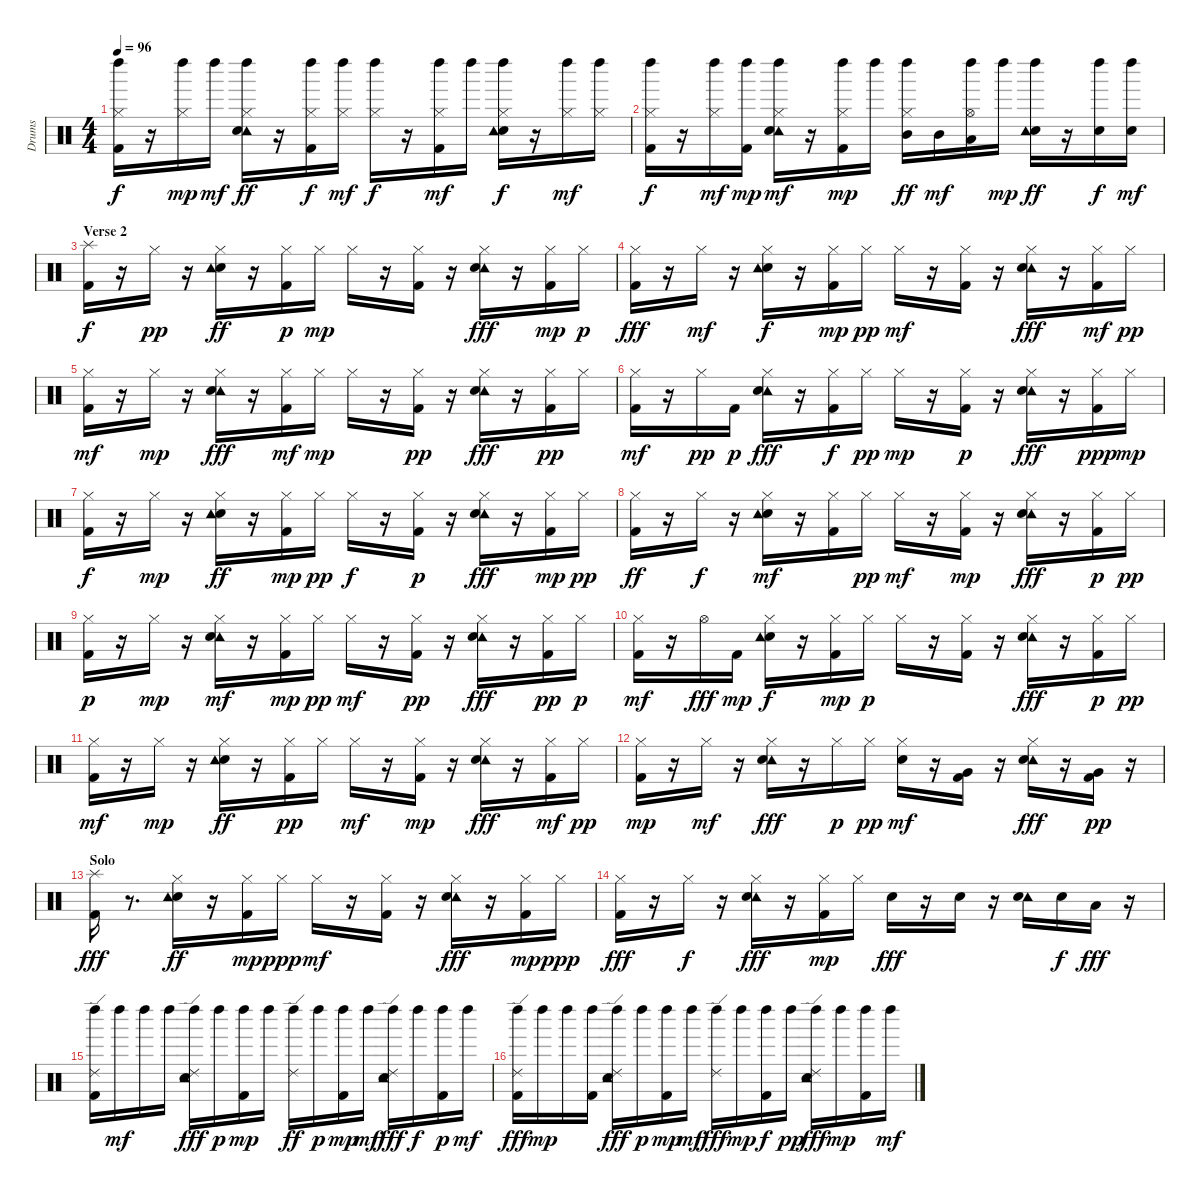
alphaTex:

\track ("Drums" "Drums") {instrument percussion}
\staff {score}
\articulation defaults
\ts (4 4)
\tempo 96
\clef neutral
\ks c
("Left Maraca (hit)" "Hi-Hat (closed)" "Kick (hit) 2").16{dy f} r.16 ("Left Maraca (hit)" "Hi-Hat (closed)").16{dy mp} "Left Maraca (hit)".16{dy mf} ("Left Maraca (hit)" "Hi-Hat (closed)" "Tambourine (hit)" "Snare (hit) 2").16{dy ff} r.16 ("Left Maraca (hit)" "Hi-Hat (closed)" "Kick (hit) 2").16{dy f} ("Left Maraca (hit)" "Hi-Hat (closed)").16{dy mf} ("Left Maraca (hit)" "Hi-Hat (closed)").16{dy f} r.16 ("Left Maraca (hit)" "Kick (hit) 2" "Hi-Hat (closed)").16{dy mf} "Left Maraca (hit)".16 ("Left Maraca (hit)" "Hi-Hat (closed)" "Snare (hit) 2" "Tambourine (hit)").16{dy f} r.16 ("Left Maraca (hit)" "Hi-Hat (closed)").16{dy mf} ("Left Maraca (hit)" "Hi-Hat (closed)").16 |
("Left Maraca (hit)" "Hi-Hat (closed)" "Kick (hit) 2").16{dy f} r.16 ("Left Maraca (hit)" "Hi-Hat (closed)").16{dy mf} ("Kick (hit) 2" "Left Maraca (hit)").16{dy mp} ("Hi-Hat (closed)" "Tambourine (hit)" "Snare (hit) 2" "Left Maraca (hit)").16{dy mf} r.16 ("Left Maraca (hit)" "Hi-Hat (closed)" "Kick (hit) 2").16{dy mp} "Left Maraca (hit)".16 ("Left Maraca (hit)" "Hi-Hat (closed)" "Mid Tom (hit)").16{dy ff} "Mid Tom (hit)".16{dy mf} ("Left Maraca (hit)" "Low Tom (hit)" "Hi-Hat (open)").16 "Left Maraca (hit)".16{dy mp} ("Left Maraca (hit)" "Snare (hit) 2" "Tambourine (hit)").16{dy ff} r.16 ("Left Maraca (hit)" "Snare (hit) 2").16{dy f} ("Left Maraca (hit)" "Snare (hit) 2").16{dy mf} |
\section ("" "Verse 2")
("Kick (hit) 2" "Splash (hit)").16{dy f} r.16 "Hi-Hat (closed)".16{dy pp} r.16 ("Hi-Hat (closed)" "Snare (hit) 2" "Tambourine (hit)").16{dy ff} r.16 ("Hi-Hat (closed)" "Kick (hit) 2").16{dy p} "Hi-Hat (closed)".16{dy mp} "Hi-Hat (closed)".16 r.16 ("Kick (hit) 2" "Hi-Hat (closed)").16 r.16 ("Tambourine (hit)" "Snare (hit) 2" "Hi-Hat (closed)").16{dy fff} r.16 ("Kick (hit) 2" "Hi-Hat (closed)").16{dy mp} "Hi-Hat (closed)".16{dy p} |
("Kick (hit) 2" "Hi-Hat (closed)").16{dy fff} r.16 "Hi-Hat (closed)".16{dy mf} r.16 ("Snare (hit) 2" "Tambourine (hit)" "Hi-Hat (closed)").16{dy f} r.16 ("Kick (hit) 2" "Hi-Hat (closed)").16{dy mp} "Hi-Hat (closed)".16{dy pp} "Hi-Hat (closed)".16{dy mf} r.16 ("Hi-Hat (closed)" "Kick (hit) 2").16 r.16 ("Tambourine (hit)" "Snare (hit) 2" "Hi-Hat (closed)").16{dy fff} r.16 ("Hi-Hat (closed)" "Kick (hit) 2").16{dy mf} "Hi-Hat (closed)".16{dy pp} |
("Hi-Hat (closed)" "Kick (hit) 2").16{dy mf} r.16 "Hi-Hat (closed)".16{dy mp} r.16 ("Tambourine (hit)" "Snare (hit) 2" "Hi-Hat (closed)").16{dy fff} r.16 ("Kick (hit) 2" "Hi-Hat (closed)").16{dy mf} "Hi-Hat (closed)".16{dy mp} "Hi-Hat (closed)".16 r.16 ("Kick (hit) 2" "Hi-Hat (closed)").16{dy pp} r.16 ("Tambourine (hit)" "Snare (hit) 2" "Hi-Hat (closed)").16{dy fff} r.16 ("Hi-Hat (closed)" "Kick (hit) 2").16{dy pp} "Hi-Hat (closed)".16 |
("Hi-Hat (closed)" "Kick (hit) 2").16{dy mf} r.16 "Hi-Hat (closed)".16{dy pp} "Kick (hit) 2".16{dy p} ("Tambourine (hit)" "Snare (hit) 2" "Hi-Hat (closed)").16{dy fff} r.16 ("Kick (hit) 2" "Hi-Hat (closed)").16{dy f} "Hi-Hat (closed)".16{dy pp} "Hi-Hat (closed)".16{dy mp} r.16 ("Kick (hit) 2" "Hi-Hat (closed)").16{dy p} r.16 ("Tambourine (hit)" "Snare (hit) 2" "Hi-Hat (closed)").16{dy fff} r.16 ("Kick (hit) 2" "Hi-Hat (closed)").16{dy ppp} "Hi-Hat (closed)".16{dy mp} |
("Hi-Hat (closed)" "Kick (hit) 2").16{dy f} r.16 "Hi-Hat (closed)".16{dy mp} r.16 ("Snare (hit) 2" "Tambourine (hit)" "Hi-Hat (closed)").16{dy ff} r.16 ("Kick (hit) 2" "Hi-Hat (closed)").16{dy mp} "Hi-Hat (closed)".16{dy pp} "Hi-Hat (closed)".16{dy f} r.16 ("Kick (hit) 2" "Hi-Hat (closed)").16{dy p} r.16 ("Tambourine (hit)" "Snare (hit) 2" "Hi-Hat (closed)").16{dy fff} r.16 ("Hi-Hat (closed)" "Kick (hit) 2").16{dy mp} "Hi-Hat (closed)".16{dy pp} |
("Hi-Hat (closed)" "Kick (hit) 2").16{dy ff} r.16 "Hi-Hat (closed)".16{dy f} r.16 ("Hi-Hat (closed)" "Snare (hit) 2" "Tambourine (hit)").16{dy mf} r.16 ("Hi-Hat (closed)" "Kick (hit) 2").16 "Hi-Hat (closed)".16{dy pp} "Hi-Hat (closed)".16{dy mf} r.16 ("Kick (hit) 2" "Hi-Hat (closed)").16{dy mp} r.16 ("Tambourine (hit)" "Snare (hit) 2" "Hi-Hat (closed)").16{dy fff} r.16 ("Hi-Hat (closed)" "Kick (hit) 2").16{dy p} "Hi-Hat (closed)".16{dy pp} |
("Hi-Hat (closed)" "Kick (hit) 2").16{dy p} r.16 "Hi-Hat (closed)".16{dy mp} r.16 ("Hi-Hat (closed)" "Tambourine (hit)" "Snare (hit) 2").16{dy mf} r.16 ("Hi-Hat (closed)" "Kick (hit) 2").16{dy mp} "Hi-Hat (closed)".16{dy pp} "Hi-Hat (closed)".16{dy mf} r.16 ("Hi-Hat (closed)" "Kick (hit) 2").16{dy pp} r.16 ("Tambourine (hit)" "Snare (hit) 2" "Hi-Hat (closed)").16{dy fff} r.16 ("Hi-Hat (closed)" "Kick (hit) 2").16{dy pp} "Hi-Hat (closed)".16{dy p} |
("Kick (hit) 2" "Hi-Hat (closed)").16{dy mf} r.16 "Hi-Hat (open)".16{dy fff} "Kick (hit) 2".16{dy mp} ("Snare (hit) 2" "Tambourine (hit)" "Hi-Hat (closed)").16{dy f} r.16 ("Hi-Hat (closed)" "Kick (hit) 2").16{dy mp} "Hi-Hat (closed)".16{dy p} "Hi-Hat (closed)".16 r.16 ("Kick (hit) 2" "Hi-Hat (closed)").16 r.16 ("Tambourine (hit)" "Snare (hit) 2" "Hi-Hat (closed)").16{dy fff} r.16 ("Kick (hit) 2" "Hi-Hat (closed)").16{dy p} "Hi-Hat (closed)".16{dy pp} |
("Hi-Hat (closed)" "Kick (hit) 2").16{dy mf} r.16 "Hi-Hat (closed)".16{dy mp} r.16 ("Hi-Hat (closed)" "Snare (hit) 2" "Tambourine (hit)").16{dy ff} r.16 ("Hi-Hat (closed)" "Kick (hit) 2").16{dy pp} "Hi-Hat (closed)".16 "Hi-Hat (closed)".16{dy mf} r.16 ("Hi-Hat (closed)" "Kick (hit) 2").16{dy mp} r.16 ("Tambourine (hit)" "Snare (hit) 2" "Hi-Hat (closed)").16{dy fff} r.16 ("Hi-Hat (closed)" "Kick (hit) 2").16{dy mf} "Hi-Hat (closed)".16{dy pp} |
("Hi-Hat (closed)" "Kick (hit) 2").16{dy mp} r.16 "Hi-Hat (closed)".16{dy mf} r.16 ("Tambourine (hit)" "Snare (hit) 2" "Hi-Hat (closed)").16{dy fff} r.16 "Hi-Hat (closed)".16{dy p} "Hi-Hat (closed)".16{dy pp} ("Hi-Hat (closed)" "Snare (hit) 2").16{dy mf} r.16 ("Very Low Tom (hit)" "Kick (hit) 2").16 r.16 ("Tambourine (hit)" "Snare (hit) 2" "Hi-Hat (closed)").16{dy fff} r.16 ("Kick (hit) 2" "Very Low Tom (hit)").16{dy pp} r.16 |
\section ("" "Solo")
("Kick (hit) 2" "Splash (hit)").16{dy fff} r.8{d} ("Hi-Hat (closed)" "Snare (hit) 2" "Tambourine (hit)").16{dy ff} r.16 ("Kick (hit) 2" "Hi-Hat (closed)").16{dy mp} "Hi-Hat (closed)".16{dy ppp} "Hi-Hat (closed)".16{dy mf} r.16 ("Hi-Hat (closed)" "Kick (hit) 2").16 r.16 ("Tambourine (hit)" "Snare (hit) 2" "Hi-Hat (closed)").16{dy fff} r.16 ("Hi-Hat (closed)" "Kick (hit) 2").16{dy mp} "Hi-Hat (closed)".16{dy ppp} |
("Kick (hit) 2" "Hi-Hat (closed)").16{dy fff} r.16 "Hi-Hat (closed)".16{dy f} r.16 ("Tambourine (hit)" "Snare (hit) 2" "Hi-Hat (closed)").16{dy fff} r.16 ("Hi-Hat (closed)" "Kick (hit) 2").16{dy mp} "Hi-Hat (closed)".16 "Snare (hit) 2".16{dy fff} r.16 "Snare (hit) 2".16 r.16 ("Tambourine (hit)" "Snare (hit) 2").16 "Snare (hit) 2".16{dy f} "Low Tom (hit)".16{dy fff} r.16 |
("Kick (hit) 2" "Ride (edge) 2" "Left Maraca (hit)").16 "Left Maraca (hit)".16{dy mf} "Left Maraca (hit)".16 "Left Maraca (hit)".16 ("Left Maraca (hit)" "Tambourine (hit)" "Snare (hit) 2" "Ride (edge) 2").16{dy fff} "Left Maraca (hit)".16{dy p} ("Left Maraca (hit)" "Kick (hit) 2").16{dy mp} "Left Maraca (hit)".16 ("Left Maraca (hit)" "Ride (edge) 2").16{dy ff} "Left Maraca (hit)".16{dy p} ("Left Maraca (hit)" "Kick (hit) 2").16{dy mp} "Left Maraca (hit)".16{dy mf} ("Tambourine (hit)" "Snare (hit) 2" "Left Maraca (hit)" "Ride (edge) 2").16{dy fff} "Left Maraca (hit)".16{dy f} ("Kick (hit) 2" "Left Maraca (hit)").16{dy p} "Left Maraca (hit)".16{dy mf} |
("Kick (hit) 2" "Ride (edge) 2" "Left Maraca (hit)").16{dy fff} "Left Maraca (hit)".16{dy mp} "Left Maraca (hit)".16 ("Kick (hit) 2" "Left Maraca (hit)").16 ("Tambourine (hit)" "Snare (hit) 2" "Ride (edge) 2" "Left Maraca (hit)").16{dy fff} "Left Maraca (hit)".16{dy p} ("Left Maraca (hit)" "Kick (hit) 2").16{dy mp} "Left Maraca (hit)".16{dy mf} ("Left Maraca (hit)" "Ride (edge) 2").16{dy fff} "Left Maraca (hit)".16{dy mp} ("Left Maraca (hit)" "Kick (hit) 2").16{dy f} "Left Maraca (hit)".16{dy pp} ("Tambourine (hit)" "Snare (hit) 2" "Ride (edge) 2" "Left Maraca (hit)").16{dy fff} "Left Maraca (hit)".16{dy mp} ("Kick (hit) 2" "Left Maraca (hit)").16 "Left Maraca (hit)".16{dy mf}
